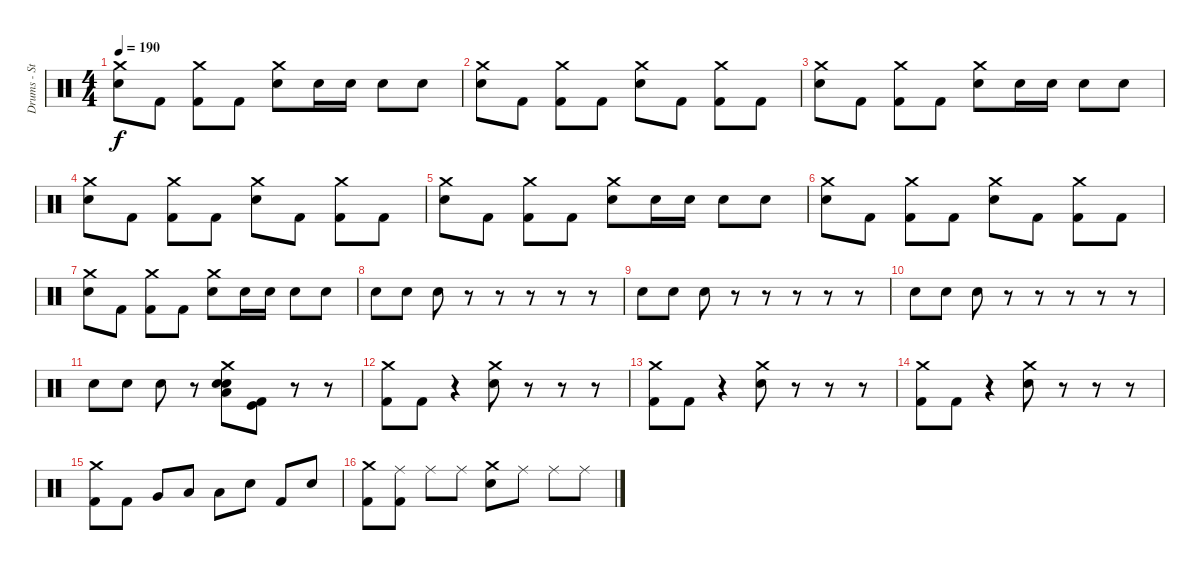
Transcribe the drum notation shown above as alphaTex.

\track ("Drums - Stevo 32" "Drums - St") {instrument percussion}
\staff {score}
\articulation defaults
\ts (4 4)
\tempo 190
\clef neutral
\ks c
("Crash medium (hit)" "Electric Snare (hit)").8{dy f} "Kick (hit) 2".8 ("Crash medium (hit)" "Kick (hit) 2").8 "Kick (hit) 2".8 ("Crash medium (hit)" "Electric Snare (hit)").8 "Electric Snare (hit)".16 "Electric Snare (hit)".16 "Electric Snare (hit)".8 "Electric Snare (hit)".8 |
("Crash medium (hit)" "Electric Snare (hit)").8 "Kick (hit) 2".8 ("Crash medium (hit)" "Kick (hit) 2").8 "Kick (hit) 2".8 ("Crash medium (hit)" "Electric Snare (hit)").8 "Kick (hit) 2".8 ("Crash medium (hit)" "Kick (hit) 2").8 "Kick (hit) 2".8 |
("Crash medium (hit)" "Electric Snare (hit)").8 "Kick (hit) 2".8 ("Crash medium (hit)" "Kick (hit) 2").8 "Kick (hit) 2".8 ("Crash medium (hit)" "Electric Snare (hit)").8 "Electric Snare (hit)".16 "Electric Snare (hit)".16 "Electric Snare (hit)".8 "Electric Snare (hit)".8 |
("Crash medium (hit)" "Electric Snare (hit)").8 "Kick (hit) 2".8 ("Crash medium (hit)" "Kick (hit) 2").8 "Kick (hit) 2".8 ("Crash medium (hit)" "Electric Snare (hit)").8 "Kick (hit) 2".8 ("Crash medium (hit)" "Kick (hit) 2").8 "Kick (hit) 2".8 |
("Crash medium (hit)" "Electric Snare (hit)").8 "Kick (hit) 2".8 ("Crash medium (hit)" "Kick (hit) 2").8 "Kick (hit) 2".8 ("Crash medium (hit)" "Electric Snare (hit)").8 "Electric Snare (hit)".16 "Electric Snare (hit)".16 "Electric Snare (hit)".8 "Electric Snare (hit)".8 |
("Crash medium (hit)" "Electric Snare (hit)").8 "Kick (hit) 2".8 ("Crash medium (hit)" "Kick (hit) 2").8 "Kick (hit) 2".8 ("Crash medium (hit)" "Electric Snare (hit)").8 "Kick (hit) 2".8 ("Crash medium (hit)" "Kick (hit) 2").8 "Kick (hit) 2".8 |
("Crash medium (hit)" "Electric Snare (hit)").8 "Kick (hit) 2".8 ("Crash medium (hit)" "Kick (hit) 2").8 "Kick (hit) 2".8 ("Crash medium (hit)" "Electric Snare (hit)").8 "Electric Snare (hit)".16 "Electric Snare (hit)".16 "Electric Snare (hit)".8 "Electric Snare (hit)".8 |
"Electric Snare (hit)".8 "Electric Snare (hit)".8 "Electric Snare (hit)".8 r.8 r.8 r.8 r.8 r.8 |
"Electric Snare (hit)".8 "Electric Snare (hit)".8 "Electric Snare (hit)".8 r.8 r.8 r.8 r.8 r.8 |
"Electric Snare (hit)".8 "Electric Snare (hit)".8 "Electric Snare (hit)".8 r.8 r.8 r.8 r.8 r.8 |
"Electric Snare (hit)".8 "Electric Snare (hit)".8 "Electric Snare (hit)".8 r.8 ("Crash medium (hit)" "Snare (hit) 2" "Electric Snare (hit)" "Low Tom (hit)").8 ("Kick (hit)" "Kick (hit) 2").8 r.8 r.8 |
("Crash medium (hit)" "Kick (hit) 2").8 "Kick (hit) 2".8 r.4 ("Crash medium (hit)" "Electric Snare (hit)").8 r.8 r.8 r.8 |
("Crash medium (hit)" "Kick (hit) 2").8 "Kick (hit) 2".8 r.4 ("Crash medium (hit)" "Electric Snare (hit)").8 r.8 r.8 r.8 |
("Crash medium (hit)" "Kick (hit) 2").8 "Kick (hit) 2".8 r.4 ("Crash medium (hit)" "Electric Snare (hit)").8 r.8 r.8 r.8 |
("Crash medium (hit)" "Kick (hit) 2").8 "Kick (hit) 2".8 "Very Low Tom (hit)".8 "Low Floor Tom (hit)".8 "Low Tom (hit)".8 "Electric Snare (hit)".8 "Kick (hit) 2".8 "Electric Snare (hit)".8 |
("Crash medium (hit)" "Kick (hit) 2").8 ("Ride (middle)" "Kick (hit) 2").8 "Ride (middle)".8 "Ride (middle)".8 ("Crash medium (hit)" "Electric Snare (hit)").8 "Ride (middle)".8 "Ride (middle)".8 "Ride (middle)".8
